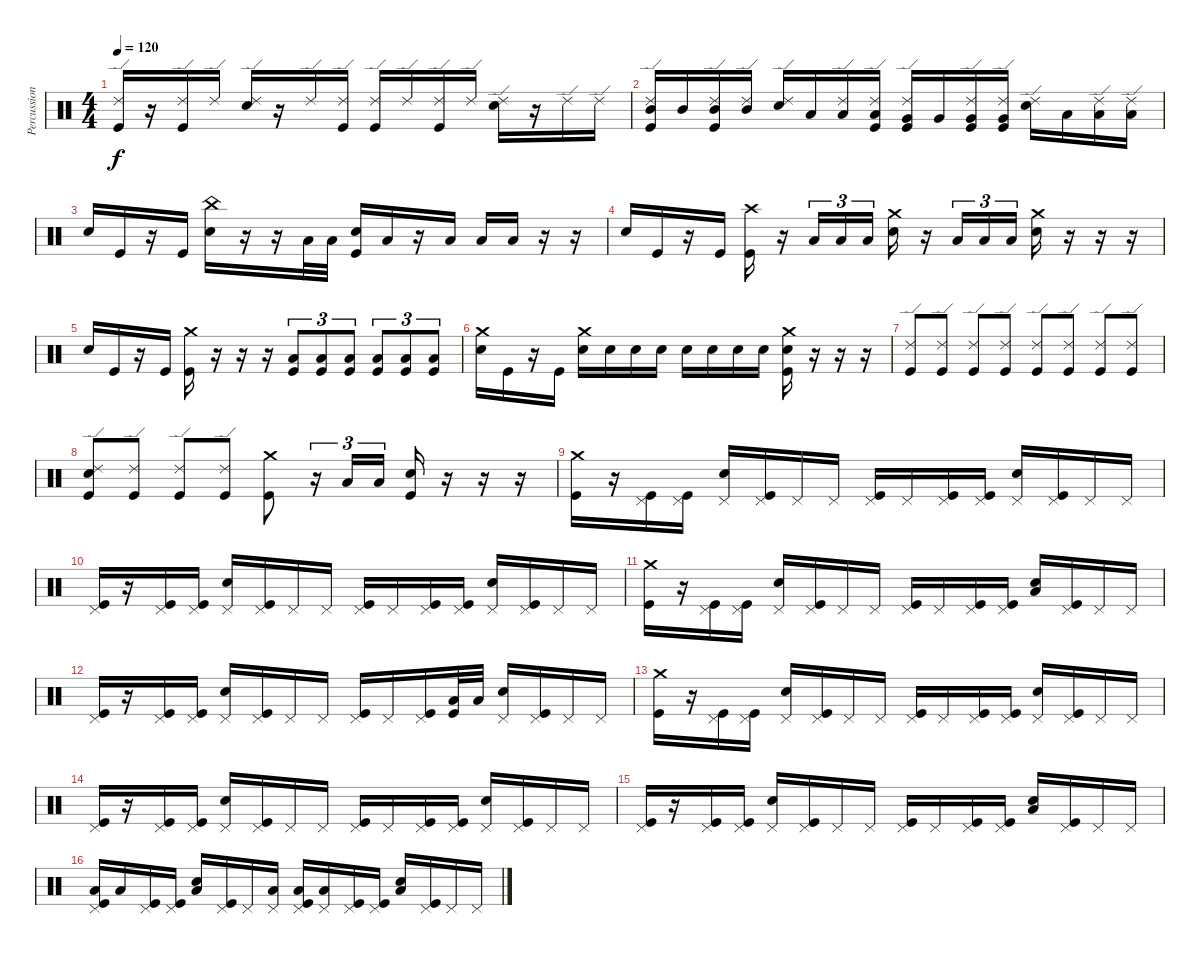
\track ("Percussion" "Percussion") {instrument percussion}
\staff {score}
\articulation defaults
\ts (4 4)
\tempo 120
\clef neutral
\ks c
("Kick (hit)" "Ride (edge) 2").16{dy f} r.16 ("Kick (hit)" "Ride (edge) 2").16 "Ride (edge) 2".16 ("Electric Snare (hit)" "Ride (edge) 2").16 r.16 "Ride (edge) 2".16 ("Kick (hit)" "Ride (edge) 2").16 ("Kick (hit)" "Ride (edge) 2").16 "Ride (edge) 2".16 ("Kick (hit)" "Ride (edge) 2").16 "Ride (edge) 2".16 ("Electric Snare (hit)" "Ride (edge) 2").16 r.16 "Ride (edge) 2".16 "Ride (edge) 2".16 |
("Kick (hit)" "Mid Tom (hit)" "Ride (edge) 2").16 "Mid Tom (hit)".16 ("Kick (hit)" "Mid Tom (hit)" "Ride (edge) 2").16 ("Mid Tom (hit)" "Ride (edge) 2").16 ("Electric Snare (hit)" "Ride (edge) 2").16 "Low Tom (hit)".16 ("Low Tom (hit)" "Ride (edge) 2").16 ("Kick (hit)" "Low Tom (hit)" "Ride (edge) 2").16 ("Kick (hit)" "Very Low Tom (hit)" "Ride (edge) 2").16 "Very Low Tom (hit)".16 ("Kick (hit)" "Very Low Tom (hit)" "Ride (edge) 2").16 ("Kick (hit)" "Very Low Tom (hit)" "Ride (edge) 2").16 ("Electric Snare (hit)" "Ride (edge) 2").16 "Low Floor Tom (hit)".16 ("Low Floor Tom (hit)" "Ride (edge) 2").16 ("Low Floor Tom (hit)" "Ride (edge) 2").16 |
"Electric Snare (hit)".16 "Kick (hit)".16 r.16 "Kick (hit)".16 ("Electric Snare (hit)" "China (hit)").16 r.16 r.16 "Low Floor Tom (hit)".32 "Low Floor Tom (hit)".32 ("Kick (hit)" "Electric Snare (hit)").16 "Low Floor Tom (hit)".16 r.16 "Low Floor Tom (hit)".16 "Low Floor Tom (hit)".16 "Low Floor Tom (hit)".16 r.16 r.16 |
"Electric Snare (hit)".16 "Kick (hit)".16 r.16 "Kick (hit)".16 ("Kick (hit)" "Crash high (hit)").16 r.16 "Low Floor Tom (hit)".16{tu (3 2)} "Low Floor Tom (hit)".16{tu (3 2)} "Low Floor Tom (hit)".16{tu (3 2)} ("Electric Snare (hit)" "Crash medium (hit)").16 r.16 "Low Floor Tom (hit)".16{tu (3 2)} "Low Floor Tom (hit)".16{tu (3 2)} "Low Floor Tom (hit)".16{tu (3 2)} ("Electric Snare (hit)" "Crash medium (hit)").16 r.16 r.16 r.16 |
"Electric Snare (hit)".16 "Kick (hit)".16 r.16 "Kick (hit)".16 ("Kick (hit)" "Crash medium (hit)").16 r.16 r.16 r.16 ("Kick (hit)" "Low Floor Tom (hit)").8{tu (3 2)} ("Kick (hit)" "Low Floor Tom (hit)").8{tu (3 2)} ("Kick (hit)" "Low Floor Tom (hit)").8{tu (3 2)} ("Kick (hit)" "Low Floor Tom (hit)").8{tu (3 2)} ("Kick (hit)" "Low Floor Tom (hit)").8{tu (3 2)} ("Kick (hit)" "Low Floor Tom (hit)").8{tu (3 2)} |
("Electric Snare (hit)" "Crash medium (hit)").16 "Kick (hit)".16 r.16 "Kick (hit)".16 ("Electric Snare (hit)" "Crash medium (hit)").16 "Electric Snare (hit)".16 "Electric Snare (hit)".16 "Electric Snare (hit)".16 "Electric Snare (hit)".16 "Electric Snare (hit)".16 "Electric Snare (hit)".16 "Electric Snare (hit)".16 ("Kick (hit)" "Electric Snare (hit)" "Crash medium (hit)").16 r.16 r.16 r.16 |
("Kick (hit)" "Ride (edge) 2").8 ("Kick (hit)" "Ride (edge) 2").8 ("Kick (hit)" "Ride (edge) 2").8 ("Kick (hit)" "Ride (edge) 2").8 ("Kick (hit)" "Ride (edge) 2").8 ("Kick (hit)" "Ride (edge) 2").8 ("Kick (hit)" "Ride (edge) 2").8 ("Kick (hit)" "Ride (edge) 2").8 |
("Kick (hit)" "Electric Snare (hit)" "Ride (edge) 2").8 ("Kick (hit)" "Ride (edge) 2").8 ("Kick (hit)" "Ride (edge) 2").8 ("Kick (hit)" "Ride (edge) 2").8 ("Kick (hit)" "Crash medium (hit)").8 r.16{tu (3 2)} "Low Floor Tom (hit)".16{tu (3 2)} "Low Floor Tom (hit)".16{tu (3 2)} ("Kick (hit)" "Electric Snare (hit)").16 r.16 r.16 r.16 |
("Kick (hit)" "Crash medium (hit)").16 r.16 ("Kick (hit)" "Pedal Hi-Hat (hit)").16 ("Kick (hit)" "Pedal Hi-Hat (hit)").16 ("Electric Snare (hit)" "Pedal Hi-Hat (hit)").16 ("Kick (hit)" "Pedal Hi-Hat (hit)").16 "Pedal Hi-Hat (hit)".16 "Pedal Hi-Hat (hit)".16 ("Kick (hit)" "Pedal Hi-Hat (hit)").16 "Pedal Hi-Hat (hit)".16 ("Kick (hit)" "Pedal Hi-Hat (hit)").16 ("Kick (hit)" "Pedal Hi-Hat (hit)").16 ("Electric Snare (hit)" "Pedal Hi-Hat (hit)").16 ("Kick (hit)" "Pedal Hi-Hat (hit)").16 "Pedal Hi-Hat (hit)".16 "Pedal Hi-Hat (hit)".16 |
("Kick (hit)" "Pedal Hi-Hat (hit)").16 r.16 ("Kick (hit)" "Pedal Hi-Hat (hit)").16 ("Kick (hit)" "Pedal Hi-Hat (hit)").16 ("Electric Snare (hit)" "Pedal Hi-Hat (hit)").16 ("Kick (hit)" "Pedal Hi-Hat (hit)").16 "Pedal Hi-Hat (hit)".16 "Pedal Hi-Hat (hit)".16 ("Kick (hit)" "Pedal Hi-Hat (hit)").16 "Pedal Hi-Hat (hit)".16 ("Kick (hit)" "Pedal Hi-Hat (hit)").16 ("Kick (hit)" "Pedal Hi-Hat (hit)").16 ("Electric Snare (hit)" "Pedal Hi-Hat (hit)").16 ("Kick (hit)" "Pedal Hi-Hat (hit)").16 "Pedal Hi-Hat (hit)".16 "Pedal Hi-Hat (hit)".16 |
("Kick (hit)" "Crash medium (hit)").16 r.16 ("Kick (hit)" "Pedal Hi-Hat (hit)").16 ("Kick (hit)" "Pedal Hi-Hat (hit)").16 ("Electric Snare (hit)" "Pedal Hi-Hat (hit)").16 ("Kick (hit)" "Pedal Hi-Hat (hit)").16 "Pedal Hi-Hat (hit)".16 "Pedal Hi-Hat (hit)".16 ("Kick (hit)" "Pedal Hi-Hat (hit)").16 "Pedal Hi-Hat (hit)".16 ("Kick (hit)" "Pedal Hi-Hat (hit)").16 ("Kick (hit)" "Pedal Hi-Hat (hit)").16 ("Electric Snare (hit)" "Low Floor Tom (hit)").16 ("Kick (hit)" "Pedal Hi-Hat (hit)").16 "Pedal Hi-Hat (hit)".16 "Pedal Hi-Hat (hit)".16 |
("Kick (hit)" "Pedal Hi-Hat (hit)").16 r.16 ("Kick (hit)" "Pedal Hi-Hat (hit)").16 ("Kick (hit)" "Pedal Hi-Hat (hit)").16 ("Electric Snare (hit)" "Pedal Hi-Hat (hit)").16 ("Kick (hit)" "Pedal Hi-Hat (hit)").16 "Pedal Hi-Hat (hit)".16 "Pedal Hi-Hat (hit)".16 ("Kick (hit)" "Pedal Hi-Hat (hit)").16 "Pedal Hi-Hat (hit)".16 ("Kick (hit)" "Pedal Hi-Hat (hit)").16 ("Kick (hit)" "Low Floor Tom (hit)").32 "Low Floor Tom (hit)".32 ("Electric Snare (hit)" "Pedal Hi-Hat (hit)").16 ("Kick (hit)" "Pedal Hi-Hat (hit)").16 "Pedal Hi-Hat (hit)".16 "Pedal Hi-Hat (hit)".16 |
("Kick (hit)" "Crash medium (hit)").16 r.16 ("Kick (hit)" "Pedal Hi-Hat (hit)").16 ("Kick (hit)" "Pedal Hi-Hat (hit)").16 ("Electric Snare (hit)" "Pedal Hi-Hat (hit)").16 ("Kick (hit)" "Pedal Hi-Hat (hit)").16 "Pedal Hi-Hat (hit)".16 "Pedal Hi-Hat (hit)".16 ("Kick (hit)" "Pedal Hi-Hat (hit)").16 "Pedal Hi-Hat (hit)".16 ("Kick (hit)" "Pedal Hi-Hat (hit)").16 ("Kick (hit)" "Pedal Hi-Hat (hit)").16 ("Electric Snare (hit)" "Pedal Hi-Hat (hit)").16 ("Kick (hit)" "Pedal Hi-Hat (hit)").16 "Pedal Hi-Hat (hit)".16 "Pedal Hi-Hat (hit)".16 |
("Kick (hit)" "Pedal Hi-Hat (hit)").16 r.16 ("Kick (hit)" "Pedal Hi-Hat (hit)").16 ("Kick (hit)" "Pedal Hi-Hat (hit)").16 ("Electric Snare (hit)" "Pedal Hi-Hat (hit)").16 ("Kick (hit)" "Pedal Hi-Hat (hit)").16 "Pedal Hi-Hat (hit)".16 "Pedal Hi-Hat (hit)".16 ("Kick (hit)" "Pedal Hi-Hat (hit)").16 "Pedal Hi-Hat (hit)".16 ("Kick (hit)" "Pedal Hi-Hat (hit)").16 ("Kick (hit)" "Pedal Hi-Hat (hit)").16 ("Electric Snare (hit)" "Pedal Hi-Hat (hit)").16 ("Kick (hit)" "Pedal Hi-Hat (hit)").16 "Pedal Hi-Hat (hit)".16 "Pedal Hi-Hat (hit)".16 |
("Kick (hit)" "Pedal Hi-Hat (hit)").16 r.16 ("Kick (hit)" "Pedal Hi-Hat (hit)").16 ("Kick (hit)" "Pedal Hi-Hat (hit)").16 ("Electric Snare (hit)" "Pedal Hi-Hat (hit)").16 ("Kick (hit)" "Pedal Hi-Hat (hit)").16 "Pedal Hi-Hat (hit)".16 "Pedal Hi-Hat (hit)".16 ("Kick (hit)" "Pedal Hi-Hat (hit)").16 "Pedal Hi-Hat (hit)".16 ("Kick (hit)" "Pedal Hi-Hat (hit)").16 ("Kick (hit)" "Pedal Hi-Hat (hit)").16 ("Electric Snare (hit)" "Low Floor Tom (hit)").16 ("Kick (hit)" "Pedal Hi-Hat (hit)").16 "Pedal Hi-Hat (hit)".16 "Pedal Hi-Hat (hit)".16 |
("Kick (hit)" "Low Floor Tom (hit)" "Pedal Hi-Hat (hit)").16 "Low Floor Tom (hit)".16 ("Kick (hit)" "Pedal Hi-Hat (hit)").16 ("Kick (hit)" "Pedal Hi-Hat (hit)").16 ("Electric Snare (hit)" "Low Floor Tom (hit)").16 ("Kick (hit)" "Pedal Hi-Hat (hit)").16 "Pedal Hi-Hat (hit)".16 ("Low Floor Tom (hit)" "Pedal Hi-Hat (hit)").16 ("Kick (hit)" "Low Floor Tom (hit)" "Pedal Hi-Hat (hit)").16 ("Low Floor Tom (hit)" "Pedal Hi-Hat (hit)").16 ("Kick (hit)" "Pedal Hi-Hat (hit)").16 ("Kick (hit)" "Pedal Hi-Hat (hit)").16 ("Electric Snare (hit)" "Low Floor Tom (hit)").16 ("Kick (hit)" "Pedal Hi-Hat (hit)").16 "Pedal Hi-Hat (hit)".16 "Pedal Hi-Hat (hit)".16
